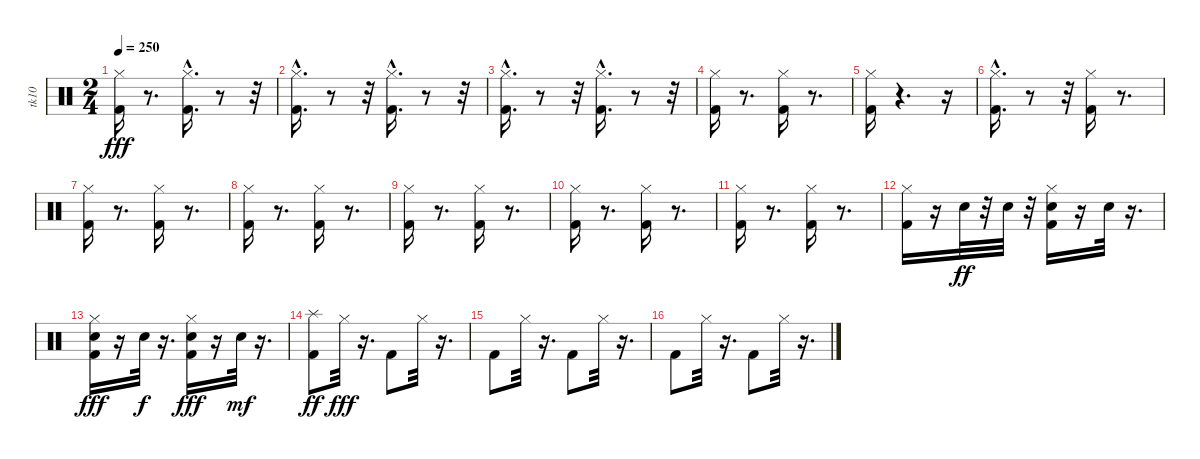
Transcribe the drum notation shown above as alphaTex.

\track ("tk10" "tk10") {instrument percussion}
\staff {score}
\articulation defaults
\ts (2 4)
\tempo 250
\clef neutral
\ks c
("Hi-Hat (closed)" "Kick (hit) 2").16{dy fff} r.8{d} ("Hi-Hat (closed)" "Kick (hit) 2"{hac}).16{d} r.8 r.32 |
("Hi-Hat (closed)" "Kick (hit) 2"{hac}).16{d} r.8 r.32 ("Hi-Hat (closed)" "Kick (hit) 2"{hac}).16{d} r.8 r.32 |
("Hi-Hat (closed)"{hac} "Kick (hit) 2").16{d} r.8 r.32 ("Hi-Hat (closed)"{hac} "Kick (hit) 2"{hac}).16{d} r.8 r.32 |
("Hi-Hat (closed)" "Kick (hit) 2").16 r.8{d} ("Kick (hit) 2" "Hi-Hat (closed)").16 r.8{d} |
("Kick (hit) 2" "Hi-Hat (closed)").16 r.4{d} r.16 |
("Hi-Hat (closed)" "Kick (hit) 2"{hac}).16{d} r.8 r.32 ("Kick (hit) 2" "Hi-Hat (closed)").16 r.8{d} |
("Hi-Hat (closed)" "Kick (hit) 2").16 r.8{d} ("Kick (hit) 2" "Hi-Hat (closed)").16 r.8{d} |
("Kick (hit) 2" "Hi-Hat (closed)").16 r.8{d} ("Hi-Hat (closed)" "Kick (hit) 2").16 r.8{d} |
("Kick (hit) 2" "Hi-Hat (closed)").16 r.8{d} ("Kick (hit) 2" "Hi-Hat (closed)").16 r.8{d} |
("Kick (hit) 2" "Hi-Hat (closed)").16 r.8{d} ("Hi-Hat (closed)" "Kick (hit) 2").16 r.8{d} |
("Hi-Hat (closed)" "Kick (hit) 2").16 r.8{d} ("Hi-Hat (closed)" "Kick (hit) 2").16 r.8{d} |
("Hi-Hat (closed)" "Kick (hit) 2").16 r.16 "Electric Snare (hit)".32{dy ff} r.32 "Electric Snare (hit)".32 r.32 ("Hi-Hat (closed)" "Kick (hit) 2" "Electric Snare (hit)").16 r.16 "Electric Snare (hit)".32 r.16{d} |
("Hi-Hat (closed)" "Kick (hit) 2" "Electric Snare (hit)").16{dy fff} r.16 "Electric Snare (hit)".32{dy f} r.16{d} ("Kick (hit) 2" "Hi-Hat (closed)" "Electric Snare (hit)").16{dy fff} r.16 "Electric Snare (hit)".32{dy mf} r.16{d} |
("Kick (hit) 2" "Splash (hit)").8{dy ff} "Hi-Hat (closed)".32{dy fff} r.16{d} "Kick (hit) 2".8 "Hi-Hat (closed)".32 r.16{d} |
"Kick (hit) 2".8 "Hi-Hat (closed)".32 r.16{d} "Kick (hit) 2".8 "Hi-Hat (closed)".32 r.16{d} |
"Kick (hit) 2".8 "Hi-Hat (closed)".32 r.16{d} "Kick (hit) 2".8 "Hi-Hat (closed)".32 r.16{d}
